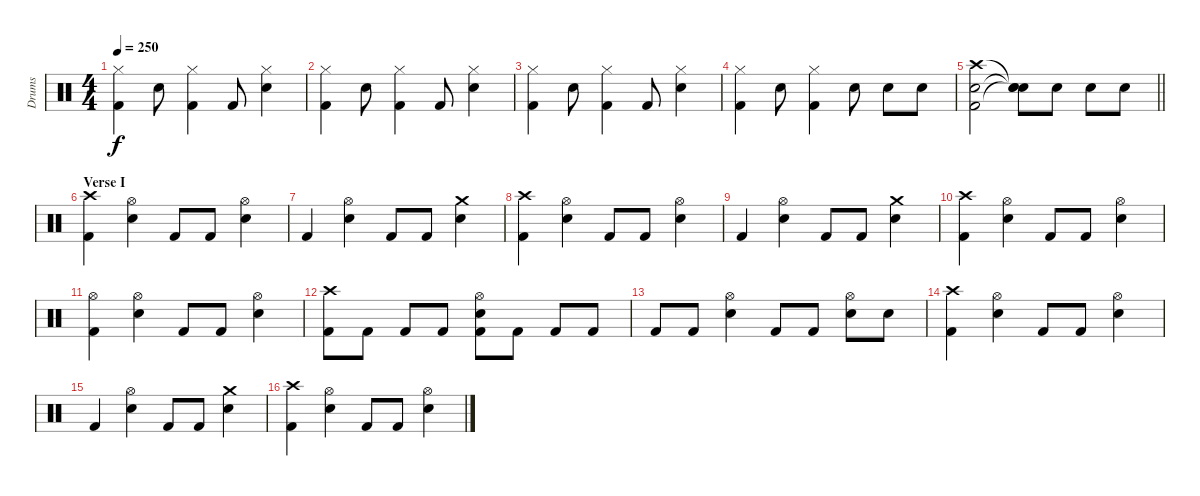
\track ("Drums" "Drums") {instrument percussion}
\staff {score}
\articulation defaults
\ts (4 4)
\tempo 250
\clef neutral
\ks c
("Hi-Hat (closed)" "Kick (hit) 2").4{dy f} "Snare (hit) 2".8 ("Hi-Hat (closed)" "Kick (hit) 2").4 "Kick (hit) 2".8 ("Hi-Hat (closed)" "Snare (hit) 2").4 |
("Hi-Hat (closed)" "Kick (hit) 2").4 "Snare (hit) 2".8 ("Hi-Hat (closed)" "Kick (hit) 2").4 "Kick (hit) 2".8 ("Hi-Hat (closed)" "Snare (hit) 2").4 |
("Hi-Hat (closed)" "Kick (hit) 2").4 "Snare (hit) 2".8 ("Hi-Hat (closed)" "Kick (hit) 2").4 "Kick (hit) 2".8 ("Hi-Hat (closed)" "Snare (hit) 2").4 |
("Hi-Hat (closed)" "Kick (hit) 2").4 "Snare (hit) 2".8 ("Hi-Hat (closed)" "Kick (hit) 2").4 "Snare (hit) 2".8 "Snare (hit) 2".8 "Snare (hit) 2".8 |
\barLineRight lightlight
("Crash high (hit)" "Snare (hit) 2" "Kick (hit) 2").2 ("Snare (hit)"{t} "Snare (hit)"{t} "Snare (hit)"{t}).8 "Snare (hit) 2".8 "Snare (hit) 2".8 "Snare (hit) 2".8 |
\section ("" "Verse I")
("Crash high (hit)" "Kick (hit) 2").4 ("Hi-Hat (open)" "Snare (hit) 2").4 "Kick (hit) 2".8 "Kick (hit) 2".8 ("Hi-Hat (open)" "Snare (hit) 2").4 |
"Kick (hit) 2".4 ("Hi-Hat (open)" "Snare (hit) 2").4 "Kick (hit) 2".8 "Kick (hit) 2".8 ("Crash medium (hit)" "Snare (hit) 2").4 |
("Crash high (hit)" "Kick (hit) 2").4 ("Hi-Hat (open)" "Snare (hit) 2").4 "Kick (hit) 2".8 "Kick (hit) 2".8 ("Hi-Hat (open)" "Snare (hit) 2").4 |
"Kick (hit) 2".4 ("Hi-Hat (open)" "Snare (hit) 2").4 "Kick (hit) 2".8 "Kick (hit) 2".8 ("Crash medium (hit)" "Snare (hit) 2").4 |
("Crash high (hit)" "Kick (hit) 2").4 ("Hi-Hat (open)" "Snare (hit) 2").4 "Kick (hit) 2".8 "Kick (hit) 2".8 ("Hi-Hat (open)" "Snare (hit) 2").4 |
("Hi-Hat (open)" "Kick (hit) 2").4 ("Hi-Hat (open)" "Snare (hit) 2").4 "Kick (hit) 2".8 "Kick (hit) 2".8 ("Hi-Hat (open)" "Snare (hit) 2").4 |
("Crash high (hit)" "Kick (hit) 2").8 "Kick (hit) 2".8 "Kick (hit) 2".8 "Kick (hit) 2".8 ("Hi-Hat (open)" "Snare (hit) 2" "Kick (hit) 2").8 "Kick (hit) 2".8 "Kick (hit) 2".8 "Kick (hit) 2".8 |
"Kick (hit) 2".8 "Kick (hit) 2".8 ("Hi-Hat (open)" "Snare (hit) 2").4 "Kick (hit) 2".8 "Kick (hit) 2".8 ("Hi-Hat (open)" "Snare (hit) 2").8 "Snare (hit) 2".8 |
("Crash high (hit)" "Kick (hit) 2").4 ("Hi-Hat (open)" "Snare (hit) 2").4 "Kick (hit) 2".8 "Kick (hit) 2".8 ("Hi-Hat (open)" "Snare (hit) 2").4 |
"Kick (hit) 2".4 ("Hi-Hat (open)" "Snare (hit) 2").4 "Kick (hit) 2".8 "Kick (hit) 2".8 ("Crash medium (hit)" "Snare (hit) 2").4 |
("Crash high (hit)" "Kick (hit) 2").4 ("Hi-Hat (open)" "Snare (hit) 2").4 "Kick (hit) 2".8 "Kick (hit) 2".8 ("Hi-Hat (open)" "Snare (hit) 2").4
